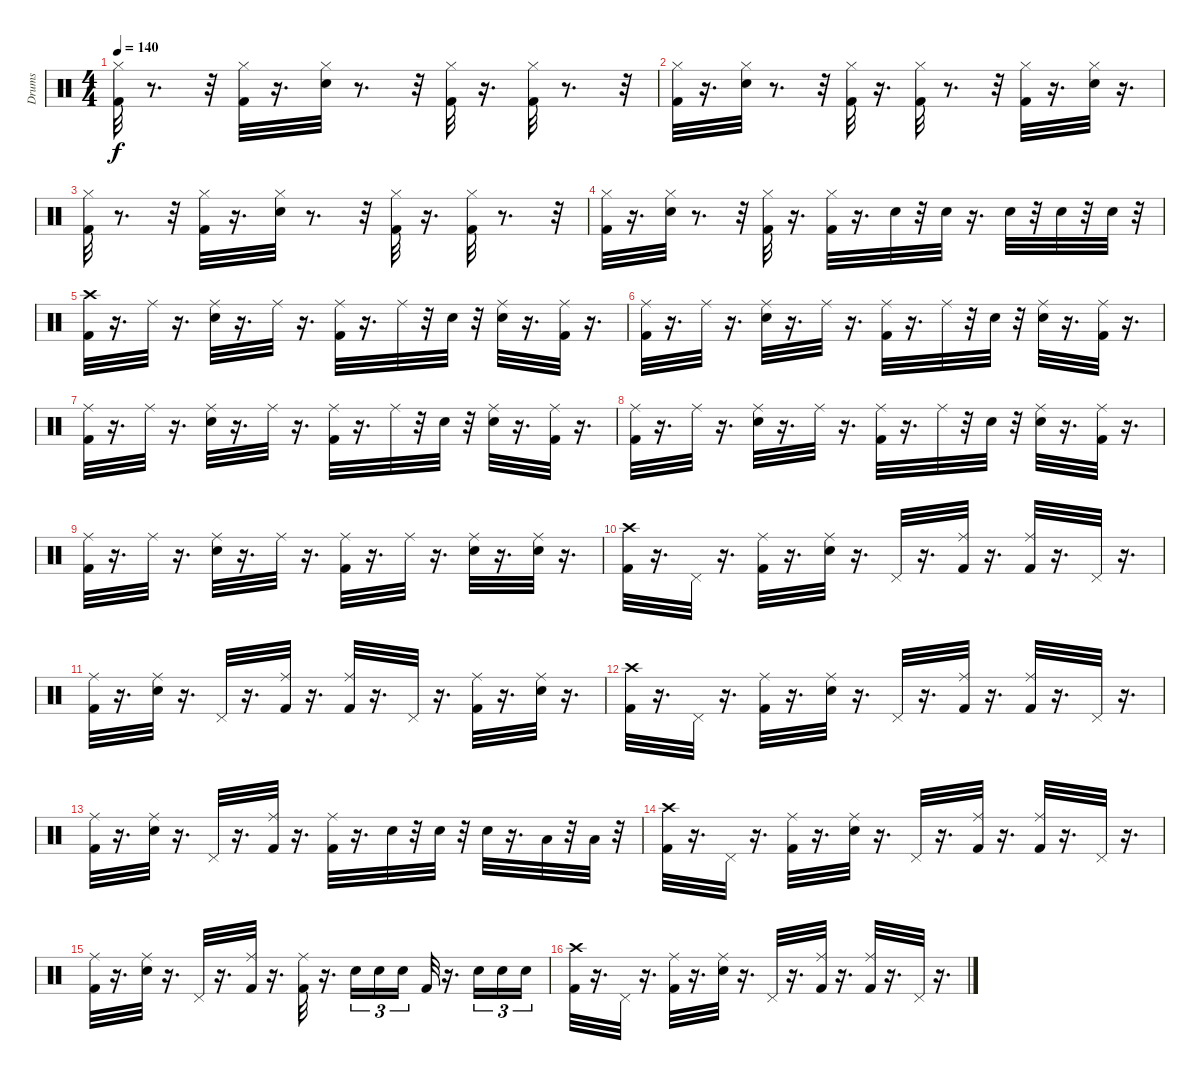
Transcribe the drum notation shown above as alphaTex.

\track ("Drums" "Drums") {instrument percussion}
\staff {score}
\articulation defaults
\ts (4 4)
\tempo 140
\clef neutral
\ks c
("Hi-Hat (closed)" "Kick (hit) 2").32{dy f} r.8{d} r.32 ("Hi-Hat (closed)" "Kick (hit) 2").32 r.16{d} ("Hi-Hat (closed)" "Snare (hit) 2").32 r.8{d} r.32 ("Hi-Hat (closed)" "Kick (hit) 2").32 r.16{d} ("Hi-Hat (closed)" "Kick (hit) 2").32 r.8{d} r.32 |
("Hi-Hat (closed)" "Kick (hit) 2").32 r.16{d} ("Hi-Hat (closed)" "Snare (hit) 2").32 r.8{d} r.32 ("Hi-Hat (closed)" "Kick (hit) 2").32 r.16{d} ("Kick (hit) 2" "Hi-Hat (closed)").32 r.8{d} r.32 ("Hi-Hat (closed)" "Kick (hit) 2").32 r.16{d} ("Hi-Hat (closed)" "Snare (hit) 2").32 r.16{d} |
("Hi-Hat (closed)" "Kick (hit) 2").32 r.8{d} r.32 ("Hi-Hat (closed)" "Kick (hit) 2").32 r.16{d} ("Hi-Hat (closed)" "Snare (hit) 2").32 r.8{d} r.32 ("Hi-Hat (closed)" "Kick (hit) 2").32 r.16{d} ("Hi-Hat (closed)" "Kick (hit) 2").32 r.8{d} r.32 |
("Hi-Hat (closed)" "Kick (hit) 2").32 r.16{d} ("Hi-Hat (closed)" "Snare (hit) 2").32 r.8{d} r.32 ("Hi-Hat (closed)" "Kick (hit) 2").32 r.16{d} ("Hi-Hat (closed)" "Kick (hit) 2").32 r.16{d} "Snare (hit) 2".32 r.32 "Snare (hit) 2".32 r.16{d} "Snare (hit) 2".32 r.32 "Snare (hit) 2".32 r.32 "Snare (hit) 2".32 r.32 |
("Crash high (hit)" "Kick (hit) 2").32 r.16{d} "Ride (middle)".32 r.16{d} ("Snare (hit) 2" "Ride (middle)").32 r.16{d} "Ride (middle)".32 r.16{d} ("Kick (hit) 2" "Ride (middle)").32 r.16{d} "Ride (middle)".32 r.32 "Snare (hit) 2".32 r.32 ("Snare (hit) 2" "Ride (middle)").32 r.16{d} ("Kick (hit) 2" "Ride (middle)").32 r.16{d} |
("Ride (middle)" "Kick (hit) 2").32 r.16{d} "Ride (middle)".32 r.16{d} ("Snare (hit) 2" "Ride (middle)").32 r.16{d} "Ride (middle)".32 r.16{d} ("Kick (hit) 2" "Ride (middle)").32 r.16{d} "Ride (middle)".32 r.32 "Snare (hit) 2".32 r.32 ("Snare (hit) 2" "Ride (middle)").32 r.16{d} ("Kick (hit) 2" "Ride (middle)").32 r.16{d} |
("Ride (middle)" "Kick (hit) 2").32 r.16{d} "Ride (middle)".32 r.16{d} ("Snare (hit) 2" "Ride (middle)").32 r.16{d} "Ride (middle)".32 r.16{d} ("Ride (middle)" "Kick (hit) 2").32 r.16{d} "Ride (middle)".32 r.32 "Snare (hit) 2".32 r.32 ("Ride (middle)" "Snare (hit) 2").32 r.16{d} ("Kick (hit) 2" "Ride (middle)").32 r.16{d} |
("Ride (middle)" "Kick (hit) 2").32 r.16{d} "Ride (middle)".32 r.16{d} ("Snare (hit) 2" "Ride (middle)").32 r.16{d} "Ride (middle)".32 r.16{d} ("Ride (middle)" "Kick (hit) 2").32 r.16{d} "Ride (middle)".32 r.32 "Snare (hit) 2".32 r.32 ("Ride (middle)" "Snare (hit) 2").32 r.16{d} ("Kick (hit) 2" "Ride (middle)").32 r.16{d} |
("Ride (middle)" "Kick (hit) 2").32 r.16{d} "Ride (middle)".32 r.16{d} ("Snare (hit) 2" "Ride (middle)").32 r.16{d} "Ride (middle)".32 r.16{d} ("Ride (middle)" "Kick (hit) 2").32 r.16{d} "Ride (middle)".32 r.16{d} ("Ride (middle)" "Snare (hit) 2").32 r.16{d} ("Snare (hit) 2" "Ride (middle)").32 r.16{d} |
("Crash high (hit)" "Kick (hit) 2").32 r.16{d} "Pedal Hi-Hat (hit)".32 r.16{d} ("Kick (hit) 2" "Ride (middle)").32 r.16{d} ("Ride (middle)" "Snare (hit) 2").32 r.16{d} "Pedal Hi-Hat (hit)".32 r.16{d} ("Ride (middle)" "Kick (hit) 2").32 r.16{d} ("Ride (middle)" "Kick (hit) 2").32 r.16{d} "Pedal Hi-Hat (hit)".32 r.16{d} |
("Ride (middle)" "Kick (hit) 2").32 r.16{d} ("Ride (middle)" "Snare (hit) 2").32 r.16{d} "Pedal Hi-Hat (hit)".32 r.16{d} ("Ride (middle)" "Kick (hit) 2").32 r.16{d} ("Kick (hit) 2" "Ride (middle)").32 r.16{d} "Pedal Hi-Hat (hit)".32 r.16{d} ("Ride (middle)" "Kick (hit) 2").32 r.16{d} ("Ride (middle)" "Snare (hit) 2").32 r.16{d} |
("Crash high (hit)" "Kick (hit) 2").32 r.16{d} "Pedal Hi-Hat (hit)".32 r.16{d} ("Ride (middle)" "Kick (hit) 2").32 r.16{d} ("Ride (middle)" "Snare (hit) 2").32 r.16{d} "Pedal Hi-Hat (hit)".32 r.16{d} ("Ride (middle)" "Kick (hit) 2").32 r.16{d} ("Kick (hit) 2" "Ride (middle)").32 r.16{d} "Pedal Hi-Hat (hit)".32 r.16{d} |
("Kick (hit) 2" "Ride (middle)").32 r.16{d} ("Ride (middle)" "Snare (hit) 2").32 r.16{d} "Pedal Hi-Hat (hit)".32 r.16{d} ("Ride (middle)" "Kick (hit) 2").32 r.16{d} ("Ride (middle)" "Kick (hit) 2").32 r.16{d} "Snare (hit) 2".32 r.32 "Snare (hit) 2".32 r.32 "Snare (hit) 2".32 r.16{d} "Low Tom (hit)".32 r.32 "Low Tom (hit)".32 r.32 |
("Crash high (hit)" "Kick (hit) 2").32 r.16{d} "Pedal Hi-Hat (hit)".32 r.16{d} ("Kick (hit) 2" "Ride (middle)").32 r.16{d} ("Ride (middle)" "Snare (hit) 2").32 r.16{d} "Pedal Hi-Hat (hit)".32 r.16{d} ("Ride (middle)" "Kick (hit) 2").32 r.16{d} ("Ride (middle)" "Kick (hit) 2").32 r.16{d} "Pedal Hi-Hat (hit)".32 r.16{d} |
("Ride (middle)" "Kick (hit) 2").32 r.16{d} ("Ride (middle)" "Snare (hit) 2").32 r.16{d} "Pedal Hi-Hat (hit)".32 r.16{d} ("Ride (middle)" "Kick (hit) 2").32 r.16{d} ("Kick (hit) 2" "Ride (middle)").32 r.16{d} "Snare (hit) 2".16{tu (3 2)} "Snare (hit) 2".16{tu (3 2)} "Snare (hit) 2".16{tu (3 2)} "Kick (hit) 2".32 r.16{d} "Snare (hit) 2".16{tu (3 2)} "Snare (hit) 2".16{tu (3 2)} "Snare (hit) 2".16{tu (3 2)} |
("Kick (hit) 2" "Crash high (hit)").32 r.16{d} "Pedal Hi-Hat (hit)".32 r.16{d} ("Kick (hit) 2" "Ride (middle)").32 r.16{d} ("Snare (hit) 2" "Ride (middle)").32 r.16{d} "Pedal Hi-Hat (hit)".32 r.16{d} ("Kick (hit) 2" "Ride (middle)").32 r.16{d} ("Ride (middle)" "Kick (hit) 2").32 r.16{d} "Pedal Hi-Hat (hit)".32 r.16{d}
